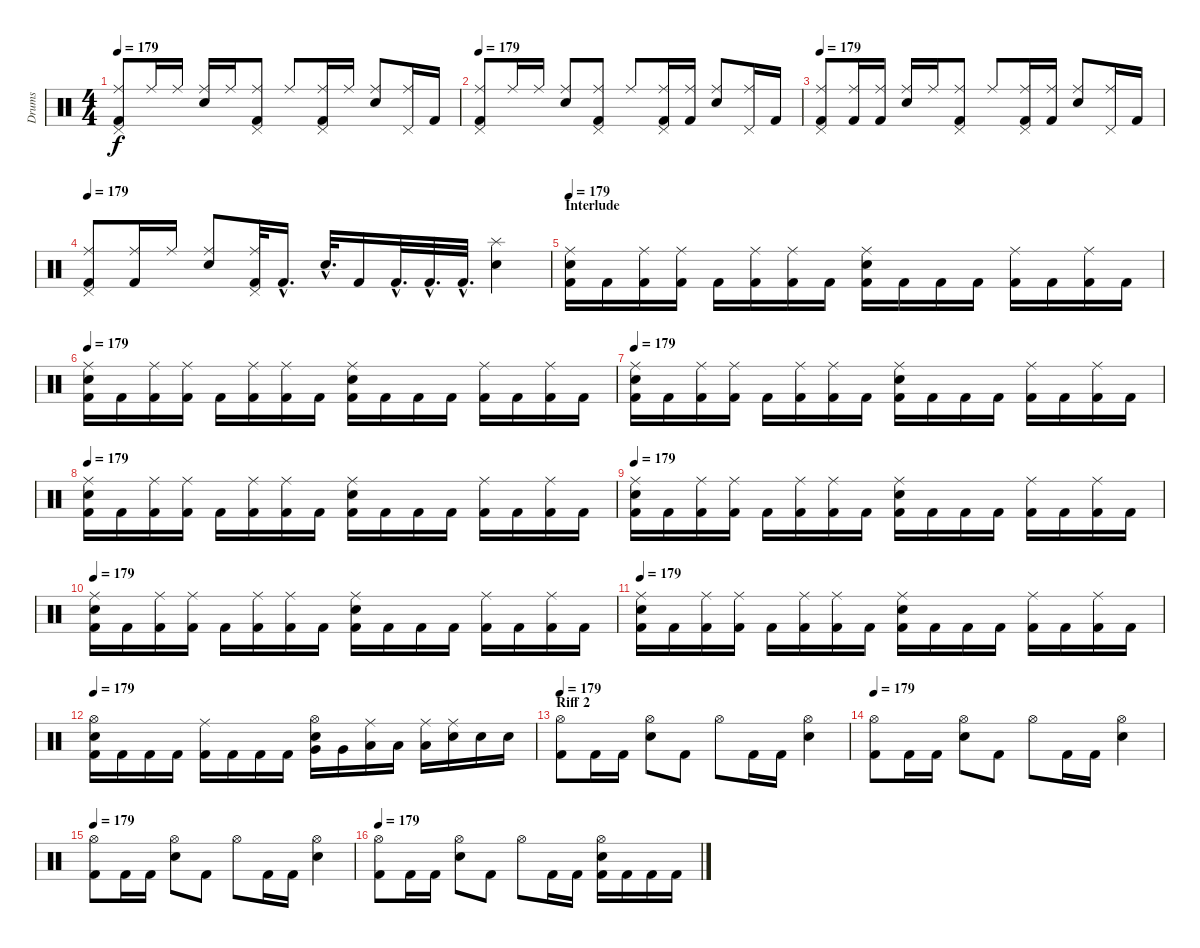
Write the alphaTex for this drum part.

\track ("Drums" "Drums") {instrument percussion}
\staff {score}
\articulation defaults
\ts (4 4)
\tempo 179
\clef neutral
\ks c
("Pedal Hi-Hat (hit)" "Ride (middle)" "Kick (hit) 2").8{dy f} "Ride (middle)".16 "Ride (middle)".16 ("Ride (middle)" "Electric Snare (hit)").16 "Ride (middle)".16 ("Pedal Hi-Hat (hit)" "Ride (middle)" "Kick (hit) 2").8 "Ride (middle)".8 ("Pedal Hi-Hat (hit)" "Ride (middle)" "Kick (hit) 2").16 "Ride (middle)".16 ("Ride (middle)" "Electric Snare (hit)").8 ("Pedal Hi-Hat (hit)" "Ride (middle)").16 "Kick (hit) 2".16 |
\tempo 179
("Pedal Hi-Hat (hit)" "Ride (middle)" "Kick (hit) 2").8 "Ride (middle)".16 "Ride (middle)".16 ("Ride (middle)" "Electric Snare (hit)").8 ("Pedal Hi-Hat (hit)" "Ride (middle)" "Kick (hit) 2").8 "Ride (middle)".8 ("Pedal Hi-Hat (hit)" "Ride (middle)" "Kick (hit) 2").16 ("Ride (middle)" "Kick (hit) 2").16 ("Ride (middle)" "Electric Snare (hit)").8 ("Pedal Hi-Hat (hit)" "Ride (middle)").16 "Kick (hit) 2".16 |
\tempo 179
("Pedal Hi-Hat (hit)" "Ride (middle)" "Kick (hit) 2").8 ("Ride (middle)" "Kick (hit) 2").16 ("Ride (middle)" "Kick (hit) 2").16 ("Ride (middle)" "Electric Snare (hit)").16 "Ride (middle)".16 ("Pedal Hi-Hat (hit)" "Ride (middle)" "Kick (hit) 2").8 "Ride (middle)".8 ("Pedal Hi-Hat (hit)" "Ride (middle)" "Kick (hit) 2").16 ("Ride (middle)" "Kick (hit) 2").16 ("Ride (middle)" "Electric Snare (hit)").8 ("Pedal Hi-Hat (hit)" "Ride (middle)").16 "Kick (hit) 2".16 |
\tempo 179
("Pedal Hi-Hat (hit)" "Ride (middle)" "Kick (hit) 2").8 ("Ride (middle)" "Kick (hit) 2").16 "Ride (middle)".16 ("Ride (middle)" "Electric Snare (hit)").8 ("Pedal Hi-Hat (hit)" "Ride (middle)" "Kick (hit) 2").32 "Kick (hit) 2"{hac}.16{d} "Electric Snare (hit)"{hac}.32{d} "Kick (hit) 2".16 "Kick (hit) 2"{hac}.32{d} "Kick (hit) 2"{hac}.32{d} "Kick (hit) 2"{hac}.32{d} ("Splash (hit)" "Electric Snare (hit)").4 |
\section ("" "Interlude")
\tempo 179
("Electric Snare (hit)" "Ride (middle)" "Kick (hit) 2").16 "Kick (hit) 2".16 ("Ride (middle)" "Kick (hit) 2").16 ("Ride (middle)" "Kick (hit) 2").16 "Kick (hit) 2".16 ("Ride (middle)" "Kick (hit) 2").16 ("Ride (middle)" "Kick (hit) 2").16 "Kick (hit) 2".16 ("Electric Snare (hit)" "Ride (middle)" "Kick (hit) 2").16 "Kick (hit) 2".16 "Kick (hit) 2".16 "Kick (hit) 2".16 ("Ride (middle)" "Kick (hit) 2").16 "Kick (hit) 2".16 ("Ride (middle)" "Kick (hit) 2").16 "Kick (hit) 2".16 |
\tempo 179
("Electric Snare (hit)" "Ride (middle)" "Kick (hit) 2").16 "Kick (hit) 2".16 ("Ride (middle)" "Kick (hit) 2").16 ("Ride (middle)" "Kick (hit) 2").16 "Kick (hit) 2".16 ("Ride (middle)" "Kick (hit) 2").16 ("Ride (middle)" "Kick (hit) 2").16 "Kick (hit) 2".16 ("Electric Snare (hit)" "Ride (middle)" "Kick (hit) 2").16 "Kick (hit) 2".16 "Kick (hit) 2".16 "Kick (hit) 2".16 ("Ride (middle)" "Kick (hit) 2").16 "Kick (hit) 2".16 ("Ride (middle)" "Kick (hit) 2").16 "Kick (hit) 2".16 |
\tempo 179
("Electric Snare (hit)" "Ride (middle)" "Kick (hit) 2").16 "Kick (hit) 2".16 ("Ride (middle)" "Kick (hit) 2").16 ("Ride (middle)" "Kick (hit) 2").16 "Kick (hit) 2".16 ("Ride (middle)" "Kick (hit) 2").16 ("Ride (middle)" "Kick (hit) 2").16 "Kick (hit) 2".16 ("Electric Snare (hit)" "Ride (middle)" "Kick (hit) 2").16 "Kick (hit) 2".16 "Kick (hit) 2".16 "Kick (hit) 2".16 ("Ride (middle)" "Kick (hit) 2").16 "Kick (hit) 2".16 ("Ride (middle)" "Kick (hit) 2").16 "Kick (hit) 2".16 |
\tempo 179
("Electric Snare (hit)" "Ride (middle)" "Kick (hit) 2").16 "Kick (hit) 2".16 ("Ride (middle)" "Kick (hit) 2").16 ("Ride (middle)" "Kick (hit) 2").16 "Kick (hit) 2".16 ("Ride (middle)" "Kick (hit) 2").16 ("Ride (middle)" "Kick (hit) 2").16 "Kick (hit) 2".16 ("Electric Snare (hit)" "Ride (middle)" "Kick (hit) 2").16 "Kick (hit) 2".16 "Kick (hit) 2".16 "Kick (hit) 2".16 ("Ride (middle)" "Kick (hit) 2").16 "Kick (hit) 2".16 ("Ride (middle)" "Kick (hit) 2").16 "Kick (hit) 2".16 |
\tempo 179
("Electric Snare (hit)" "Ride (middle)" "Kick (hit) 2").16 "Kick (hit) 2".16 ("Ride (middle)" "Kick (hit) 2").16 ("Ride (middle)" "Kick (hit) 2").16 "Kick (hit) 2".16 ("Ride (middle)" "Kick (hit) 2").16 ("Ride (middle)" "Kick (hit) 2").16 "Kick (hit) 2".16 ("Electric Snare (hit)" "Ride (middle)" "Kick (hit) 2").16 "Kick (hit) 2".16 "Kick (hit) 2".16 "Kick (hit) 2".16 ("Ride (middle)" "Kick (hit) 2").16 "Kick (hit) 2".16 ("Ride (middle)" "Kick (hit) 2").16 "Kick (hit) 2".16 |
\tempo 179
("Electric Snare (hit)" "Ride (middle)" "Kick (hit) 2").16 "Kick (hit) 2".16 ("Ride (middle)" "Kick (hit) 2").16 ("Ride (middle)" "Kick (hit) 2").16 "Kick (hit) 2".16 ("Ride (middle)" "Kick (hit) 2").16 ("Ride (middle)" "Kick (hit) 2").16 "Kick (hit) 2".16 ("Electric Snare (hit)" "Ride (middle)" "Kick (hit) 2").16 "Kick (hit) 2".16 "Kick (hit) 2".16 "Kick (hit) 2".16 ("Ride (middle)" "Kick (hit) 2").16 "Kick (hit) 2".16 ("Ride (middle)" "Kick (hit) 2").16 "Kick (hit) 2".16 |
\tempo 179
("Electric Snare (hit)" "Ride (middle)" "Kick (hit) 2").16 "Kick (hit) 2".16 ("Ride (middle)" "Kick (hit) 2").16 ("Ride (middle)" "Kick (hit) 2").16 "Kick (hit) 2".16 ("Ride (middle)" "Kick (hit) 2").16 ("Ride (middle)" "Kick (hit) 2").16 "Kick (hit) 2".16 ("Electric Snare (hit)" "Ride (middle)" "Kick (hit) 2").16 "Kick (hit) 2".16 "Kick (hit) 2".16 "Kick (hit) 2".16 ("Ride (middle)" "Kick (hit) 2").16 "Kick (hit) 2".16 ("Ride (middle)" "Kick (hit) 2").16 "Kick (hit) 2".16 |
\tempo 179
("Electric Snare (hit)" "Hi-Hat (open)" "Kick (hit) 2").16 "Kick (hit) 2".16 "Kick (hit) 2".16 "Kick (hit) 2".16 ("Ride (middle)" "Kick (hit) 2").16 "Kick (hit) 2".16 "Kick (hit) 2".16 "Kick (hit) 2".16 ("Electric Snare (hit)" "Hi-Hat (open)" "Very Low Tom (hit)").16 "Very Low Tom (hit)".16 ("Ride (middle)" "Low Floor Tom (hit)").16 "Low Floor Tom (hit)".16 ("Ride (middle)" "Low Floor Tom (hit)").16 ("Ride (middle)" "Electric Snare (hit)").16 "Electric Snare (hit)".16 "Electric Snare (hit)".16 |
\section ("" "Riff 2")
\tempo 179
("Hi-Hat (open)" "Kick (hit) 2").8 "Kick (hit) 2".16 "Kick (hit) 2".16 ("Hi-Hat (open)" "Electric Snare (hit)").8 "Kick (hit) 2".8 "Hi-Hat (open)".8 "Kick (hit) 2".16 "Kick (hit) 2".16 ("Hi-Hat (open)" "Electric Snare (hit)").4 |
\tempo 179
("Hi-Hat (open)" "Kick (hit) 2").8 "Kick (hit) 2".16 "Kick (hit) 2".16 ("Hi-Hat (open)" "Electric Snare (hit)").8 "Kick (hit) 2".8 "Hi-Hat (open)".8 "Kick (hit) 2".16 "Kick (hit) 2".16 ("Hi-Hat (open)" "Electric Snare (hit)").4 |
\tempo 179
("Hi-Hat (open)" "Kick (hit) 2").8 "Kick (hit) 2".16 "Kick (hit) 2".16 ("Hi-Hat (open)" "Electric Snare (hit)").8 "Kick (hit) 2".8 "Hi-Hat (open)".8 "Kick (hit) 2".16 "Kick (hit) 2".16 ("Hi-Hat (open)" "Electric Snare (hit)").4 |
\tempo 179
("Hi-Hat (open)" "Kick (hit) 2").8 "Kick (hit) 2".16 "Kick (hit) 2".16 ("Hi-Hat (open)" "Electric Snare (hit)").8 "Kick (hit) 2".8 "Hi-Hat (open)".8 "Kick (hit) 2".16 "Kick (hit) 2".16 ("Hi-Hat (open)" "Electric Snare (hit)" "Kick (hit) 2").16 "Kick (hit) 2".16 "Kick (hit) 2".16 "Kick (hit) 2".16
